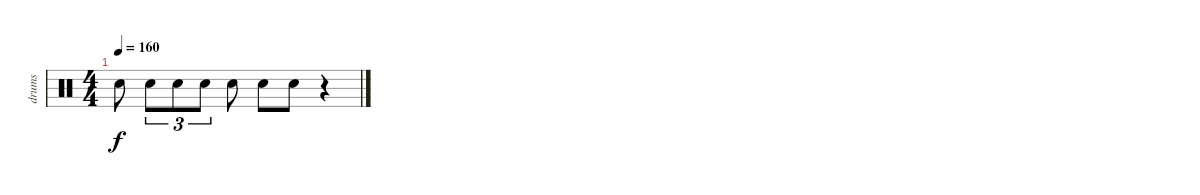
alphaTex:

\track ("drums" "drums") {instrument percussion}
\staff {score}
\articulation defaults
\ts (4 4)
\tempo 160
\clef neutral
\ks c "Snare (hit) 2".8{dy f} "Snare (hit) 2".8{tu (3 2)} "Snare (hit) 2".8{tu (3 2)} "Snare (hit) 2".8{tu (3 2)} "Snare (hit) 2".8 "Snare (hit) 2".8 "Snare (hit) 2".8
r.4
